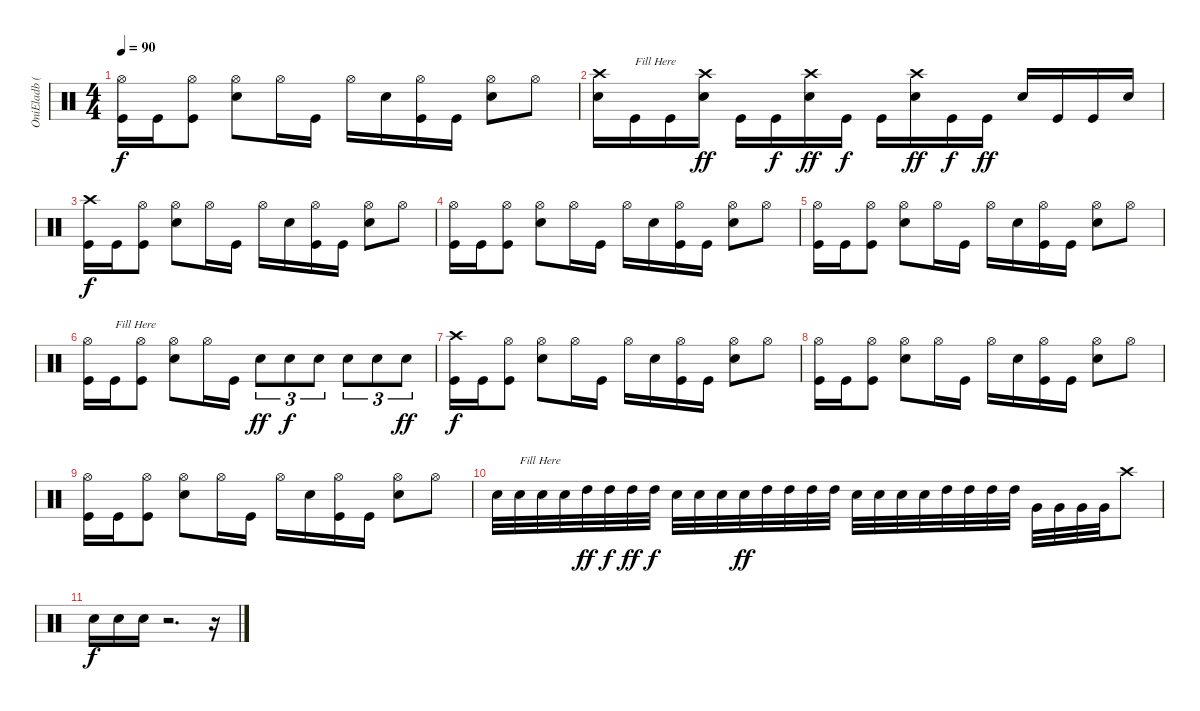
\track ("OniEladb (Battérie)" "OniEladb (") {instrument percussion}
\staff {score}
\articulation defaults
\ts (4 4)
\tempo 90
\clef neutral
\ks c
("Hi-Hat (open)" "Kick (hit)").16{dy f} "Kick (hit)".16 ("Hi-Hat (open)" "Kick (hit)").8 ("Hi-Hat (open)" "Snare (hit) 2").8 "Hi-Hat (open)".16 "Kick (hit)".16 "Hi-Hat (open)".16 "Snare (hit) 2".16 ("Hi-Hat (open)" "Kick (hit)").16 "Kick (hit)".16 ("Hi-Hat (open)" "Snare (hit) 2").8 "Hi-Hat (open)".8 |
("Crash high (hit)" "Snare (hit) 2").16 "Kick (hit)".16{txt "Fill Here"} "Kick (hit)".16 ("Crash high (hit)" "Snare (hit) 2").16{dy ff} "Kick (hit)".16 "Kick (hit)".16{dy f} ("Crash high (hit)" "Snare (hit) 2").16{dy ff} "Kick (hit)".16{dy f} "Kick (hit)".16 ("Crash high (hit)" "Snare (hit) 2").16{dy ff} "Kick (hit)".16{dy f} "Kick (hit)".16{dy ff} "Snare (hit) 2".16 "Kick (hit)".16 "Kick (hit)".16 "Snare (hit) 2".16 |
("Crash high (hit)" "Kick (hit)").16{dy f} "Kick (hit)".16 ("Hi-Hat (open)" "Kick (hit)").8 ("Hi-Hat (open)" "Snare (hit) 2").8 "Hi-Hat (open)".16 "Kick (hit)".16 "Hi-Hat (open)".16 "Snare (hit) 2".16 ("Hi-Hat (open)" "Kick (hit)").16 "Kick (hit)".16 ("Hi-Hat (open)" "Snare (hit) 2").8 "Hi-Hat (open)".8 |
("Hi-Hat (open)" "Kick (hit)").16 "Kick (hit)".16 ("Hi-Hat (open)" "Kick (hit)").8 ("Hi-Hat (open)" "Snare (hit) 2").8 "Hi-Hat (open)".16 "Kick (hit)".16 "Hi-Hat (open)".16 "Snare (hit) 2".16 ("Hi-Hat (open)" "Kick (hit)").16 "Kick (hit)".16 ("Hi-Hat (open)" "Snare (hit) 2").8 "Hi-Hat (open)".8 |
("Hi-Hat (open)" "Kick (hit)").16 "Kick (hit)".16 ("Hi-Hat (open)" "Kick (hit)").8 ("Hi-Hat (open)" "Snare (hit) 2").8 "Hi-Hat (open)".16 "Kick (hit)".16 "Hi-Hat (open)".16 "Snare (hit) 2".16 ("Hi-Hat (open)" "Kick (hit)").16 "Kick (hit)".16 ("Hi-Hat (open)" "Snare (hit) 2").8 "Hi-Hat (open)".8 |
("Hi-Hat (open)" "Kick (hit)").16 "Kick (hit)".16{txt "Fill Here"} ("Hi-Hat (open)" "Kick (hit)").8 ("Hi-Hat (open)" "Snare (hit) 2").8 "Hi-Hat (open)".16 "Kick (hit)".16 "Snare (hit) 2".8{tu (3 2) dy ff} "Snare (hit) 2".8{tu (3 2) dy f} "Snare (hit) 2".8{tu (3 2)} "Snare (hit) 2".8{tu (3 2)} "Snare (hit) 2".8{tu (3 2)} "Snare (hit) 2".8{tu (3 2) dy ff} |
("Crash high (hit)" "Kick (hit)").16{dy f} "Kick (hit)".16 ("Hi-Hat (open)" "Kick (hit)").8 ("Hi-Hat (open)" "Snare (hit) 2").8 "Hi-Hat (open)".16 "Kick (hit)".16 "Hi-Hat (open)".16 "Snare (hit) 2".16 ("Hi-Hat (open)" "Kick (hit)").16 "Kick (hit)".16 ("Hi-Hat (open)" "Snare (hit) 2").8 "Hi-Hat (open)".8 |
("Hi-Hat (open)" "Kick (hit)").16 "Kick (hit)".16 ("Hi-Hat (open)" "Kick (hit)").8 ("Hi-Hat (open)" "Snare (hit) 2").8 "Hi-Hat (open)".16 "Kick (hit)".16 "Hi-Hat (open)".16 "Snare (hit) 2".16 ("Hi-Hat (open)" "Kick (hit)").16 "Kick (hit)".16 ("Hi-Hat (open)" "Snare (hit) 2").8 "Hi-Hat (open)".8 |
("Hi-Hat (open)" "Kick (hit)").16 "Kick (hit)".16 ("Hi-Hat (open)" "Kick (hit)").8 ("Hi-Hat (open)" "Snare (hit) 2").8 "Hi-Hat (open)".16 "Kick (hit)".16 "Hi-Hat (open)".16 "Snare (hit) 2".16 ("Hi-Hat (open)" "Kick (hit)").16 "Kick (hit)".16 ("Hi-Hat (open)" "Snare (hit) 2").8 "Hi-Hat (open)".8 |
"Snare (hit) 2".32 "Snare (hit) 2".32{txt "Fill Here"} "Snare (hit) 2".32 "Snare (hit) 2".32 "High Tom (hit)".32{dy ff} "High Tom (hit)".32{dy f} "High Tom (hit)".32{dy ff} "High Tom (hit)".32{dy f} "Snare (hit) 2".32 "Snare (hit) 2".32 "Snare (hit) 2".32 "Snare (hit) 2".32{dy ff} "High Tom (hit)".32 "High Tom (hit)".32 "High Tom (hit)".32 "High Tom (hit)".32 "Snare (hit) 2".32 "Snare (hit) 2".32 "Snare (hit) 2".32 "Snare (hit) 2".32 "High Tom (hit)".32 "High Tom (hit)".32 "High Tom (hit)".32 "High Tom (hit)".32 "Very Low Tom (hit)".32 "Very Low Tom (hit)".32 "Very Low Tom (hit)".32 "Very Low Tom (hit)".32 "Crash high (hit)".8 |
"Snare (hit) 2".16{dy f} "Snare (hit) 2".16 "Snare (hit) 2".16 r.2{d} r.16
